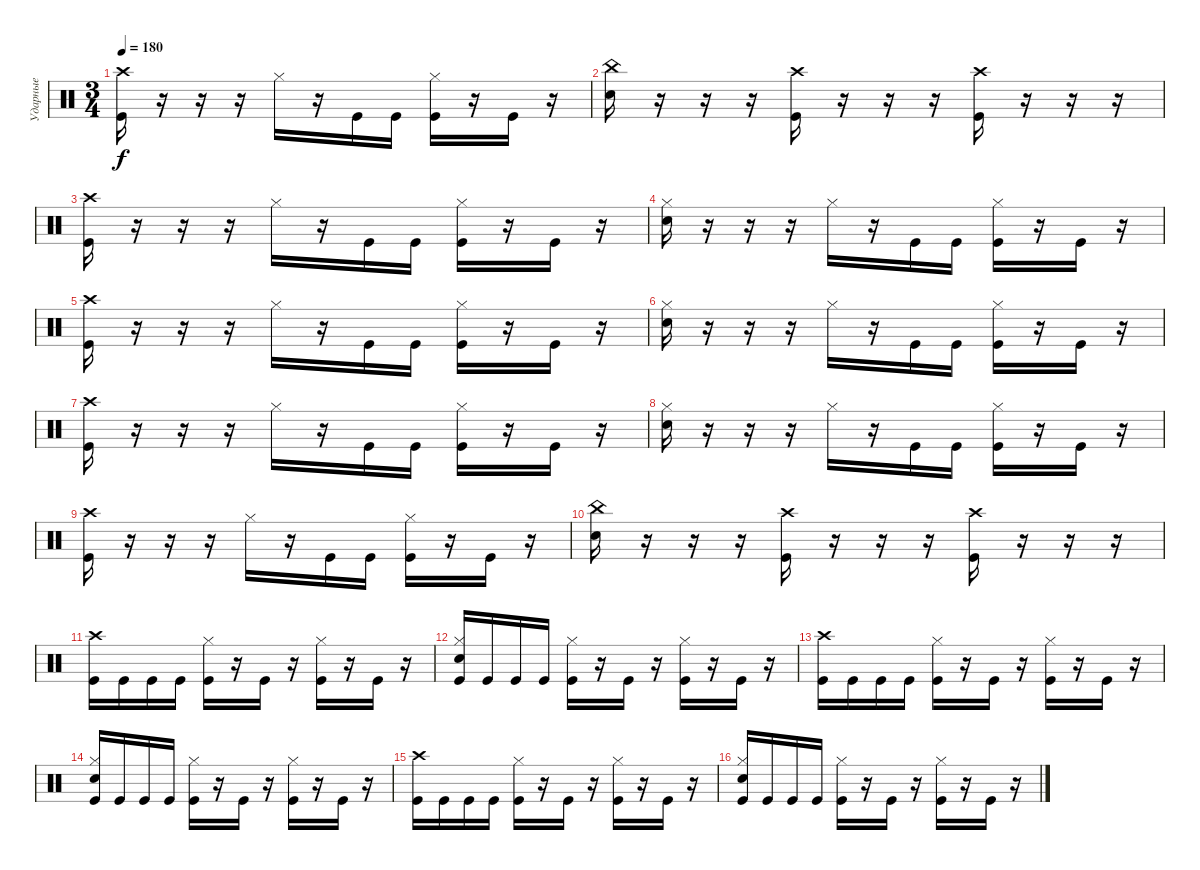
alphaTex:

\track ("Ударные" "Ударные") {instrument percussion}
\staff {score}
\articulation defaults
\ts (3 4)
\tempo 180
\clef neutral
\ks c
("Crash high (hit)" "Kick (hit)").16{dy f} r.16 r.16 r.16 "Hi-Hat (closed)".16 r.16 "Kick (hit)".16 "Kick (hit)".16 ("Hi-Hat (closed)" "Kick (hit)").16 r.16 "Kick (hit)".16 r.16 |
("China (hit)" "Electric Snare (hit)").16 r.16 r.16 r.16 ("Crash high (hit)" "Kick (hit)").16 r.16 r.16 r.16 ("Crash high (hit)" "Kick (hit)").16 r.16 r.16 r.16 |
("Crash high (hit)" "Kick (hit)").16 r.16 r.16 r.16 "Hi-Hat (closed)".16 r.16 "Kick (hit)".16 "Kick (hit)".16 ("Hi-Hat (closed)" "Kick (hit)").16 r.16 "Kick (hit)".16 r.16 |
("Hi-Hat (closed)" "Electric Snare (hit)").16 r.16 r.16 r.16 "Hi-Hat (closed)".16 r.16 "Kick (hit)".16 "Kick (hit)".16 ("Hi-Hat (closed)" "Kick (hit)").16 r.16 "Kick (hit)".16 r.16 |
("Crash high (hit)" "Kick (hit)").16 r.16 r.16 r.16 "Hi-Hat (closed)".16 r.16 "Kick (hit)".16 "Kick (hit)".16 ("Hi-Hat (closed)" "Kick (hit)").16 r.16 "Kick (hit)".16 r.16 |
("Hi-Hat (closed)" "Electric Snare (hit)").16 r.16 r.16 r.16 "Hi-Hat (closed)".16 r.16 "Kick (hit)".16 "Kick (hit)".16 ("Hi-Hat (closed)" "Kick (hit)").16 r.16 "Kick (hit)".16 r.16 |
("Crash high (hit)" "Kick (hit)").16 r.16 r.16 r.16 "Hi-Hat (closed)".16 r.16 "Kick (hit)".16 "Kick (hit)".16 ("Hi-Hat (closed)" "Kick (hit)").16 r.16 "Kick (hit)".16 r.16 |
("Hi-Hat (closed)" "Electric Snare (hit)").16 r.16 r.16 r.16 "Hi-Hat (closed)".16 r.16 "Kick (hit)".16 "Kick (hit)".16 ("Hi-Hat (closed)" "Kick (hit)").16 r.16 "Kick (hit)".16 r.16 |
("Crash high (hit)" "Kick (hit)").16 r.16 r.16 r.16 "Hi-Hat (closed)".16 r.16 "Kick (hit)".16 "Kick (hit)".16 ("Hi-Hat (closed)" "Kick (hit)").16 r.16 "Kick (hit)".16 r.16 |
("China (hit)" "Electric Snare (hit)").16 r.16 r.16 r.16 ("Crash high (hit)" "Kick (hit)").16 r.16 r.16 r.16 ("Crash high (hit)" "Kick (hit)").16 r.16 r.16 r.16 |
("Crash high (hit)" "Kick (hit)").16 "Kick (hit)".16 "Kick (hit)".16 "Kick (hit)".16 ("Hi-Hat (closed)" "Kick (hit)").16 r.16 "Kick (hit)".16 r.16 ("Hi-Hat (closed)" "Kick (hit)").16 r.16 "Kick (hit)".16 r.16 |
("Hi-Hat (closed)" "Electric Snare (hit)" "Kick (hit)").16 "Kick (hit)".16 "Kick (hit)".16 "Kick (hit)".16 ("Hi-Hat (closed)" "Kick (hit)").16 r.16 "Kick (hit)".16 r.16 ("Hi-Hat (closed)" "Kick (hit)").16 r.16 "Kick (hit)".16 r.16 |
("Crash high (hit)" "Kick (hit)").16 "Kick (hit)".16 "Kick (hit)".16 "Kick (hit)".16 ("Hi-Hat (closed)" "Kick (hit)").16 r.16 "Kick (hit)".16 r.16 ("Hi-Hat (closed)" "Kick (hit)").16 r.16 "Kick (hit)".16 r.16 |
("Hi-Hat (closed)" "Electric Snare (hit)" "Kick (hit)").16 "Kick (hit)".16 "Kick (hit)".16 "Kick (hit)".16 ("Hi-Hat (closed)" "Kick (hit)").16 r.16 "Kick (hit)".16 r.16 ("Hi-Hat (closed)" "Kick (hit)").16 r.16 "Kick (hit)".16 r.16 |
("Crash high (hit)" "Kick (hit)").16 "Kick (hit)".16 "Kick (hit)".16 "Kick (hit)".16 ("Hi-Hat (closed)" "Kick (hit)").16 r.16 "Kick (hit)".16 r.16 ("Hi-Hat (closed)" "Kick (hit)").16 r.16 "Kick (hit)".16 r.16 |
("Hi-Hat (closed)" "Electric Snare (hit)" "Kick (hit)").16 "Kick (hit)".16 "Kick (hit)".16 "Kick (hit)".16 ("Hi-Hat (closed)" "Kick (hit)").16 r.16 "Kick (hit)".16 r.16 ("Hi-Hat (closed)" "Kick (hit)").16 r.16 "Kick (hit)".16 r.16
